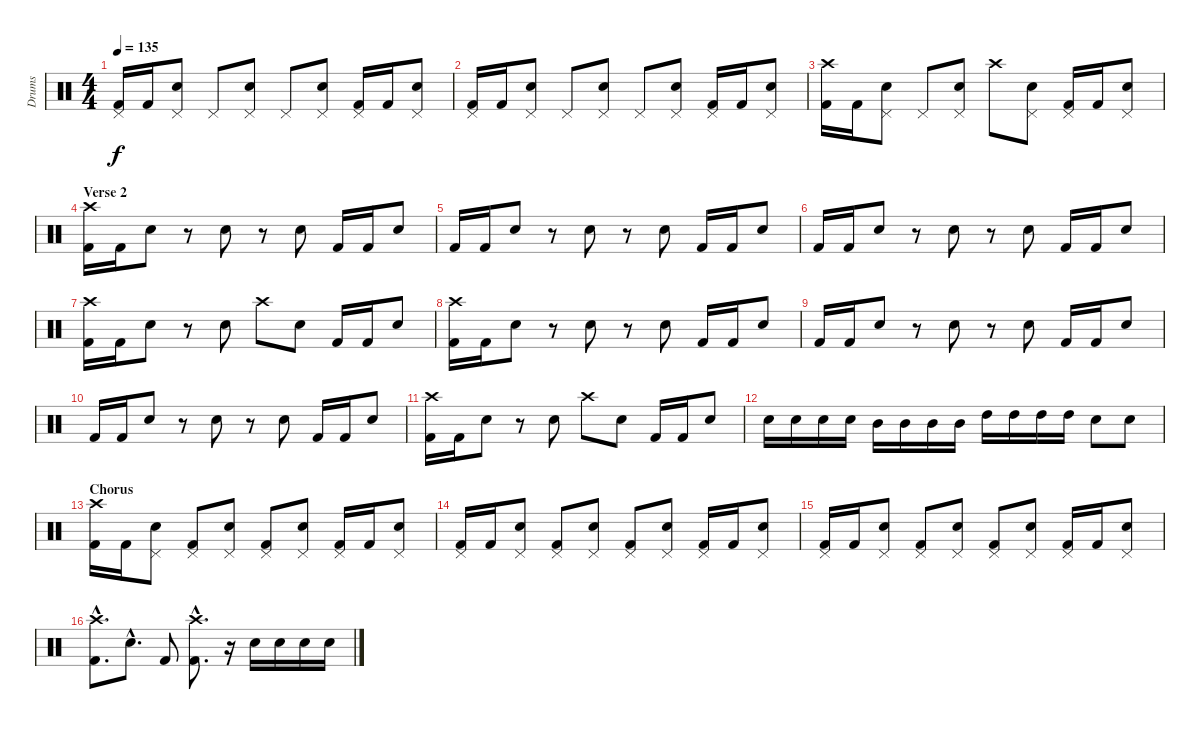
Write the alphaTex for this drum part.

\track ("Drums" "Drums") {instrument percussion}
\staff {score}
\articulation defaults
\ts (4 4)
\tempo 135
\clef neutral
\ks c
("Pedal Hi-Hat (hit)" "Kick (hit) 2").16{dy f} "Kick (hit) 2".16 ("Pedal Hi-Hat (hit)" "Snare (hit) 2").8 "Pedal Hi-Hat (hit)".8 ("Pedal Hi-Hat (hit)" "Snare (hit) 2").8 "Pedal Hi-Hat (hit)".8 ("Pedal Hi-Hat (hit)" "Snare (hit) 2").8 ("Pedal Hi-Hat (hit)" "Kick (hit) 2").16 "Kick (hit) 2".16 ("Pedal Hi-Hat (hit)" "Snare (hit) 2").8 |
("Pedal Hi-Hat (hit)" "Kick (hit) 2").16 "Kick (hit) 2".16 ("Pedal Hi-Hat (hit)" "Snare (hit) 2").8 "Pedal Hi-Hat (hit)".8 ("Pedal Hi-Hat (hit)" "Snare (hit) 2").8 "Pedal Hi-Hat (hit)".8 ("Pedal Hi-Hat (hit)" "Snare (hit) 2").8 ("Pedal Hi-Hat (hit)" "Kick (hit) 2").16 "Kick (hit) 2".16 ("Pedal Hi-Hat (hit)" "Snare (hit) 2").8 |
("Crash high (hit)" "Kick (hit) 2").16 "Kick (hit) 2".16 ("Pedal Hi-Hat (hit)" "Snare (hit) 2").8 "Pedal Hi-Hat (hit)".8 ("Pedal Hi-Hat (hit)" "Snare (hit) 2").8 "Crash high (hit)".8 ("Pedal Hi-Hat (hit)" "Snare (hit) 2").8 ("Pedal Hi-Hat (hit)" "Kick (hit) 2").16 "Kick (hit) 2".16 ("Pedal Hi-Hat (hit)" "Snare (hit) 2").8 |
\section ("" "Verse 2")
("Crash high (hit)" "Kick (hit) 2").16 "Kick (hit) 2".16 "Snare (hit) 2".8 r.8 "Snare (hit) 2".8 r.8 "Snare (hit) 2".8 "Kick (hit) 2".16 "Kick (hit) 2".16 "Snare (hit) 2".8 |
"Kick (hit) 2".16 "Kick (hit) 2".16 "Snare (hit) 2".8 r.8 "Snare (hit) 2".8 r.8 "Snare (hit) 2".8 "Kick (hit) 2".16 "Kick (hit) 2".16 "Snare (hit) 2".8 |
"Kick (hit) 2".16 "Kick (hit) 2".16 "Snare (hit) 2".8 r.8 "Snare (hit) 2".8 r.8 "Snare (hit) 2".8 "Kick (hit) 2".16 "Kick (hit) 2".16 "Snare (hit) 2".8 |
("Crash high (hit)" "Kick (hit) 2").16 "Kick (hit) 2".16 "Snare (hit) 2".8 r.8 "Snare (hit) 2".8 "Crash high (hit)".8 "Snare (hit) 2".8 "Kick (hit) 2".16 "Kick (hit) 2".16 "Snare (hit) 2".8 |
("Crash high (hit)" "Kick (hit) 2").16 "Kick (hit) 2".16 "Snare (hit) 2".8 r.8 "Snare (hit) 2".8 r.8 "Snare (hit) 2".8 "Kick (hit) 2".16 "Kick (hit) 2".16 "Snare (hit) 2".8 |
"Kick (hit) 2".16 "Kick (hit) 2".16 "Snare (hit) 2".8 r.8 "Snare (hit) 2".8 r.8 "Snare (hit) 2".8 "Kick (hit) 2".16 "Kick (hit) 2".16 "Snare (hit) 2".8 |
"Kick (hit) 2".16 "Kick (hit) 2".16 "Snare (hit) 2".8 r.8 "Snare (hit) 2".8 r.8 "Snare (hit) 2".8 "Kick (hit) 2".16 "Kick (hit) 2".16 "Snare (hit) 2".8 |
("Crash high (hit)" "Kick (hit) 2").16 "Kick (hit) 2".16 "Snare (hit) 2".8 r.8 "Snare (hit) 2".8 "Crash high (hit)".8 "Snare (hit) 2".8 "Kick (hit) 2".16 "Kick (hit) 2".16 "Snare (hit) 2".8 |
"Snare (hit) 2".16 "Snare (hit) 2".16 "Snare (hit) 2".16 "Snare (hit) 2".16 "Mid Tom (hit)".16 "Mid Tom (hit)".16 "Mid Tom (hit)".16 "Mid Tom (hit)".16 "High Tom (hit)".16 "High Tom (hit)".16 "High Tom (hit)".16 "High Tom (hit)".16 "Snare (hit) 2".8 "Snare (hit) 2".8 |
\section ("" "Chorus")
("Crash high (hit)" "Kick (hit) 2").16 "Kick (hit) 2".16 ("Pedal Hi-Hat (hit)" "Snare (hit) 2").8 ("Pedal Hi-Hat (hit)" "Kick (hit) 2").8 ("Pedal Hi-Hat (hit)" "Snare (hit) 2").8 ("Pedal Hi-Hat (hit)" "Kick (hit) 2").8 ("Pedal Hi-Hat (hit)" "Snare (hit) 2").8 ("Pedal Hi-Hat (hit)" "Kick (hit) 2").16 "Kick (hit) 2".16 ("Pedal Hi-Hat (hit)" "Snare (hit) 2").8 |
("Pedal Hi-Hat (hit)" "Kick (hit) 2").16 "Kick (hit) 2".16 ("Pedal Hi-Hat (hit)" "Snare (hit) 2").8 ("Pedal Hi-Hat (hit)" "Kick (hit) 2").8 ("Pedal Hi-Hat (hit)" "Snare (hit) 2").8 ("Pedal Hi-Hat (hit)" "Kick (hit) 2").8 ("Pedal Hi-Hat (hit)" "Snare (hit) 2").8 ("Pedal Hi-Hat (hit)" "Kick (hit) 2").16 "Kick (hit) 2".16 ("Pedal Hi-Hat (hit)" "Snare (hit) 2").8 |
("Pedal Hi-Hat (hit)" "Kick (hit) 2").16 "Kick (hit) 2".16 ("Pedal Hi-Hat (hit)" "Snare (hit) 2").8 ("Pedal Hi-Hat (hit)" "Kick (hit) 2").8 ("Pedal Hi-Hat (hit)" "Snare (hit) 2").8 ("Pedal Hi-Hat (hit)" "Kick (hit) 2").8 ("Pedal Hi-Hat (hit)" "Snare (hit) 2").8 ("Pedal Hi-Hat (hit)" "Kick (hit) 2").16 "Kick (hit) 2".16 ("Pedal Hi-Hat (hit)" "Snare (hit) 2").8 |
("Crash high (hit)"{hac} "Kick (hit) 2"{hac}).8{d} "Snare (hit) 2"{hac}.8{d} "Kick (hit) 2".8 ("Crash high (hit)"{hac} "Kick (hit) 2"{hac}).8{d} r.16 "Snare (hit) 2".16 "Snare (hit) 2".16 "Snare (hit) 2".16 "Snare (hit) 2".16
